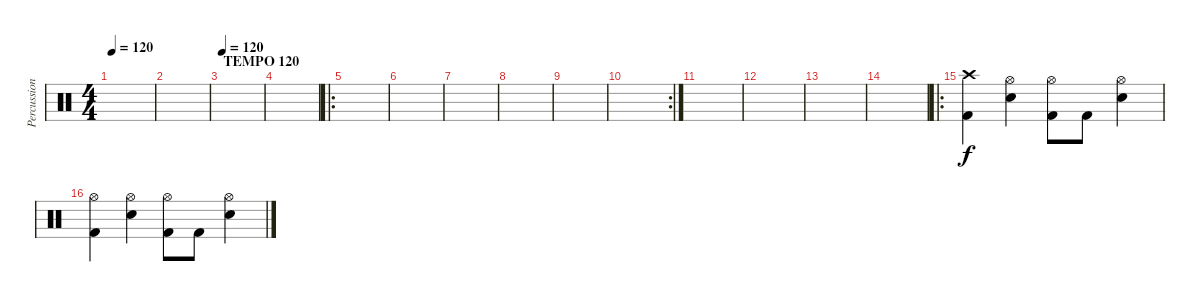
\track ("Percussion" "Percussion") {instrument percussion}
\staff {score}
\articulation defaults
\ts (4 4)
\tempo 120
\tempo 50
\tempo 120
\clef neutral
\ks c
|
|
\section ("" "TEMPO 120")
\tempo 120
|
|
\ro
|
|
|
|
|
\rc 2
|
|
|
|
|
\ro
("Kick (hit) 2" "Crash high (hit)").4 ("Snare (hit) 2" "Hi-Hat (open)").4 ("Kick (hit) 2" "Hi-Hat (open)").8 "Kick (hit) 2".8 ("Snare (hit) 2" "Hi-Hat (open)").4 |
("Kick (hit) 2" "Hi-Hat (open)").4 ("Snare (hit) 2" "Hi-Hat (open)").4 ("Kick (hit) 2" "Hi-Hat (open)").8 "Kick (hit) 2".8 ("Snare (hit) 2" "Hi-Hat (open)").4
